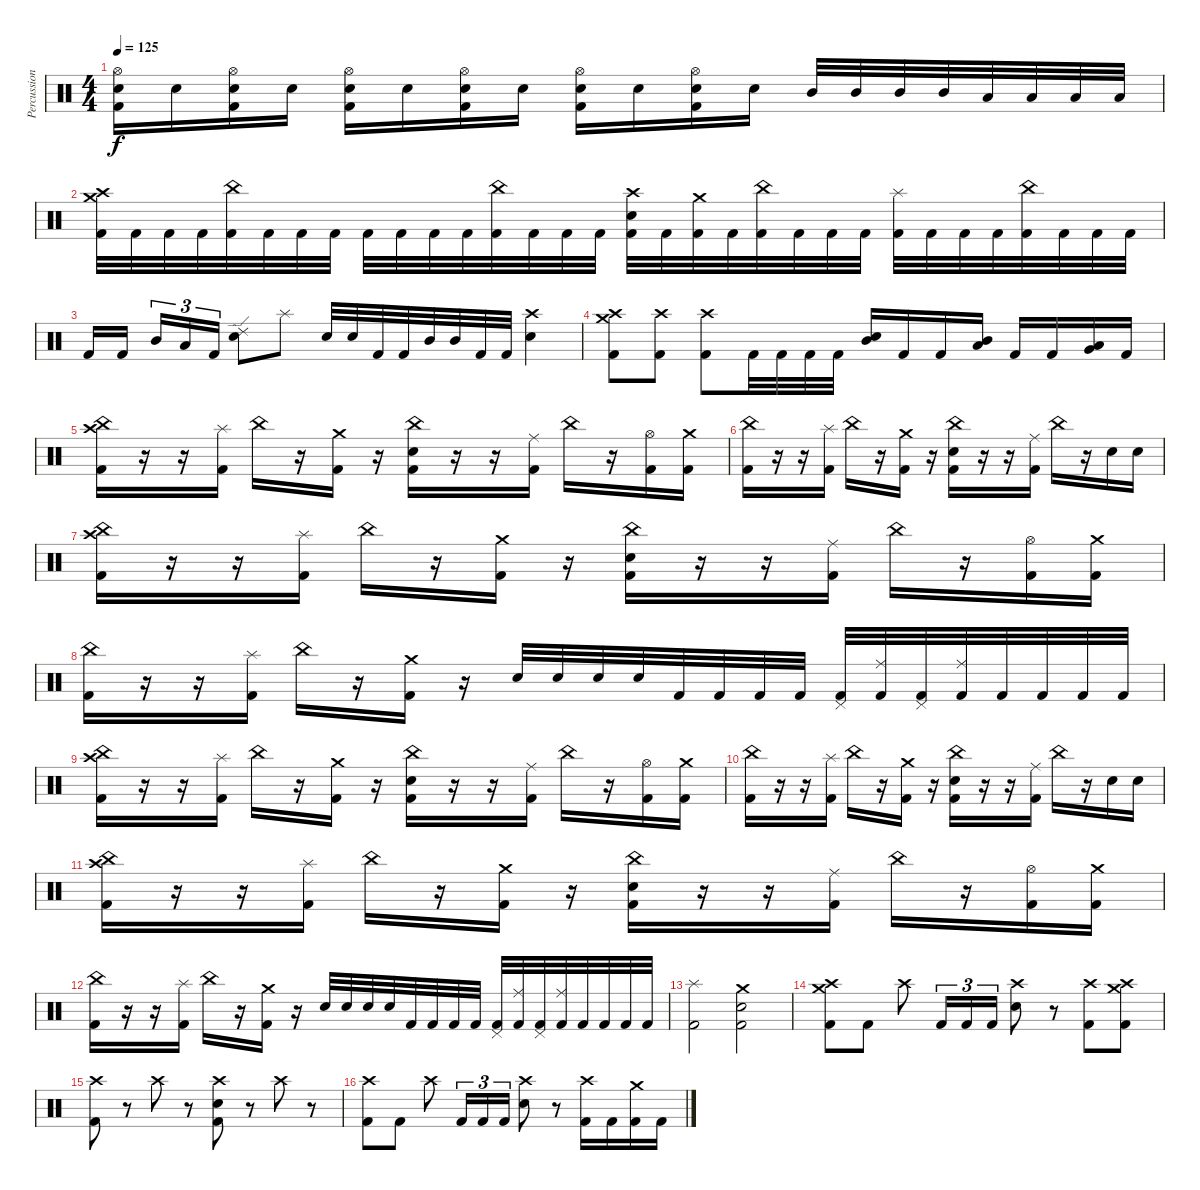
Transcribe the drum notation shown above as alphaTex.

\track ("Percussion" "Percussion") {instrument percussion}
\staff {score}
\articulation defaults
\ts (4 4)
\tempo 125
\clef neutral
\ks c
("Hi-Hat (open)" "Electric Snare (hit)" "Kick (hit) 2").16{dy f} "Electric Snare (hit)".16 ("Hi-Hat (open)" "Electric Snare (hit)" "Kick (hit) 2").16 "Electric Snare (hit)".16 ("Hi-Hat (open)" "Electric Snare (hit)" "Kick (hit) 2").16 "Electric Snare (hit)".16 ("Hi-Hat (open)" "Electric Snare (hit)" "Kick (hit) 2").16 "Electric Snare (hit)".16 ("Hi-Hat (open)" "Electric Snare (hit)" "Kick (hit) 2").16 "Electric Snare (hit)".16 ("Hi-Hat (open)" "Electric Snare (hit)" "Kick (hit) 2").16 "Electric Snare (hit)".16 "Mid Tom (hit)".32 "Mid Tom (hit)".32 "Mid Tom (hit)".32 "Mid Tom (hit)".32 "Low Tom (hit)".32 "Low Tom (hit)".32 "Low Tom (hit)".32 "Low Tom (hit)".32 |
("Crash medium (hit)" "Crash high (hit)" "Kick (hit) 2").32 "Kick (hit) 2".32 "Kick (hit) 2".32 "Kick (hit) 2".32 ("China (hit)" "Kick (hit) 2").32 "Kick (hit) 2".32 "Kick (hit) 2".32 "Kick (hit) 2".32 "Kick (hit) 2".32 "Kick (hit) 2".32 "Kick (hit) 2".32 "Kick (hit) 2".32 ("China (hit)" "Kick (hit) 2").32 "Kick (hit) 2".32 "Kick (hit) 2".32 "Kick (hit) 2".32 ("Crash high (hit)" "Electric Snare (hit)" "Kick (hit) 2").32 "Kick (hit) 2".32 ("Crash medium (hit)" "Kick (hit) 2").32 "Kick (hit) 2".32 ("China (hit)" "Kick (hit) 2").32 "Kick (hit) 2".32 "Kick (hit) 2".32 "Kick (hit) 2".32 ("Splash (hit)" "Kick (hit) 2").32 "Kick (hit) 2".32 "Kick (hit) 2".32 "Kick (hit) 2".32 ("China (hit)" "Kick (hit) 2").32 "Kick (hit) 2".32 "Kick (hit) 2".32 "Kick (hit) 2".32 |
"Kick (hit) 2".16 "Kick (hit) 2".16{beam splitsecondary} "Mid Tom (hit)".16{tu (3 2)} "Low Tom (hit)".16{tu (3 2)} "Kick (hit) 2".16{tu (3 2)} ("Ride (edge) 2" "Electric Snare (hit)").8 "Splash (hit)".8 "Electric Snare (hit)".32 "Electric Snare (hit)".32 "Kick (hit) 2".32 "Kick (hit) 2".32 "Mid Tom (hit)".32 "Mid Tom (hit)".32 "Kick (hit) 2".32 "Kick (hit) 2".32 ("Crash high (hit)" "Electric Snare (hit)").4 |
("Crash medium (hit)" "Crash high (hit)" "Kick (hit) 2").8 ("Crash high (hit)" "Kick (hit) 2").8 ("Crash high (hit)" "Kick (hit) 2").8 "Kick (hit) 2".32 "Kick (hit) 2".32 "Kick (hit) 2".32 "Kick (hit) 2".32 ("Mid Tom (hit)" "Electric Snare (hit)").16 "Kick (hit) 2".16 "Kick (hit) 2".16 ("Low Tom (hit)" "Mid Tom (hit)").16 "Kick (hit) 2".16 "Kick (hit) 2".16 ("Very Low Tom (hit)" "Low Tom (hit)").16 "Kick (hit) 2".16 |
("Crash high (hit)" "China (hit)" "Kick (hit) 2").16 r.16 r.16 ("Splash (hit)" "Kick (hit) 2").16 "China (hit)".16 r.16 ("Crash medium (hit)" "Kick (hit) 2").16 r.16 ("China (hit)" "Electric Snare (hit)" "Kick (hit) 2").16 r.16 r.16 ("Ride (middle)" "Kick (hit) 2").16 "China (hit)".16 r.16 ("Hi-Hat (open)" "Kick (hit) 2").16 ("Crash medium (hit)" "Kick (hit) 2").16 |
("China (hit)" "Kick (hit) 2").16 r.16 r.16 ("Splash (hit)" "Kick (hit) 2").16 "China (hit)".16 r.16 ("Crash medium (hit)" "Kick (hit) 2").16 r.16 ("China (hit)" "Electric Snare (hit)" "Kick (hit) 2").16 r.16 r.16 ("Ride (middle)" "Kick (hit) 2").16 "China (hit)".16 r.16 "Electric Snare (hit)".16 "Electric Snare (hit)".16 |
("Crash high (hit)" "China (hit)" "Kick (hit) 2").16 r.16 r.16 ("Splash (hit)" "Kick (hit) 2").16 "China (hit)".16 r.16 ("Crash medium (hit)" "Kick (hit) 2").16 r.16 ("China (hit)" "Electric Snare (hit)" "Kick (hit) 2").16 r.16 r.16 ("Ride (middle)" "Kick (hit) 2").16 "China (hit)".16 r.16 ("Hi-Hat (open)" "Kick (hit) 2").16 ("Crash medium (hit)" "Kick (hit) 2").16 |
("China (hit)" "Kick (hit) 2").16 r.16 r.16 ("Splash (hit)" "Kick (hit) 2").16 "China (hit)".16 r.16 ("Crash medium (hit)" "Kick (hit) 2").16 r.16 "Electric Snare (hit)".32 "Electric Snare (hit)".32 "Electric Snare (hit)".32 "Electric Snare (hit)".32 "Kick (hit) 2".32 "Kick (hit) 2".32 "Kick (hit) 2".32 "Kick (hit) 2".32 ("Pedal Hi-Hat (hit)" "Kick (hit) 2").32 ("Ride (middle)" "Kick (hit) 2").32 ("Pedal Hi-Hat (hit)" "Kick (hit) 2").32 ("Ride (middle)" "Kick (hit) 2").32 "Kick (hit) 2".32 "Kick (hit) 2".32 "Kick (hit) 2".32 "Kick (hit) 2".32 |
("Crash high (hit)" "China (hit)" "Kick (hit) 2").16 r.16 r.16 ("Splash (hit)" "Kick (hit) 2").16 "China (hit)".16 r.16 ("Crash medium (hit)" "Kick (hit) 2").16 r.16 ("China (hit)" "Electric Snare (hit)" "Kick (hit) 2").16 r.16 r.16 ("Ride (middle)" "Kick (hit) 2").16 "China (hit)".16 r.16 ("Hi-Hat (open)" "Kick (hit) 2").16 ("Crash medium (hit)" "Kick (hit) 2").16 |
("China (hit)" "Kick (hit) 2").16 r.16 r.16 ("Splash (hit)" "Kick (hit) 2").16 "China (hit)".16 r.16 ("Crash medium (hit)" "Kick (hit) 2").16 r.16 ("China (hit)" "Electric Snare (hit)" "Kick (hit) 2").16 r.16 r.16 ("Ride (middle)" "Kick (hit) 2").16 "China (hit)".16 r.16 "Electric Snare (hit)".16 "Electric Snare (hit)".16 |
("Crash high (hit)" "China (hit)" "Kick (hit) 2").16 r.16 r.16 ("Splash (hit)" "Kick (hit) 2").16 "China (hit)".16 r.16 ("Crash medium (hit)" "Kick (hit) 2").16 r.16 ("China (hit)" "Electric Snare (hit)" "Kick (hit) 2").16 r.16 r.16 ("Ride (middle)" "Kick (hit) 2").16 "China (hit)".16 r.16 ("Hi-Hat (open)" "Kick (hit) 2").16 ("Crash medium (hit)" "Kick (hit) 2").16 |
("China (hit)" "Kick (hit) 2").16 r.16 r.16 ("Splash (hit)" "Kick (hit) 2").16 "China (hit)".16 r.16 ("Crash medium (hit)" "Kick (hit) 2").16 r.16 "Electric Snare (hit)".32 "Electric Snare (hit)".32 "Electric Snare (hit)".32 "Electric Snare (hit)".32 "Kick (hit) 2".32 "Kick (hit) 2".32 "Kick (hit) 2".32 "Kick (hit) 2".32 ("Pedal Hi-Hat (hit)" "Kick (hit) 2").32 ("Ride (middle)" "Kick (hit) 2").32 ("Pedal Hi-Hat (hit)" "Kick (hit) 2").32 ("Ride (middle)" "Kick (hit) 2").32 "Kick (hit) 2".32 "Kick (hit) 2".32 "Kick (hit) 2".32 "Kick (hit) 2".32 |
("Splash (hit)" "Kick (hit) 2").2 ("Crash medium (hit)" "Electric Snare (hit)" "Kick (hit) 2").2 |
("Crash medium (hit)" "Crash high (hit)" "Kick (hit) 2").8 "Kick (hit) 2".8 "Crash high (hit)".8 "Kick (hit) 2".16{tu (3 2)} "Kick (hit) 2".16{tu (3 2)} "Kick (hit) 2".16{tu (3 2)} ("Crash high (hit)" "Electric Snare (hit)").8 r.8 ("Crash high (hit)" "Kick (hit) 2").8 ("Crash medium (hit)" "Crash high (hit)" "Kick (hit) 2").8 |
("Crash high (hit)" "Kick (hit) 2").8 r.8 "Crash high (hit)".8 r.8 ("Crash high (hit)" "Electric Snare (hit)" "Kick (hit) 2").8 r.8 "Crash high (hit)".8 r.8 |
("Crash high (hit)" "Kick (hit) 2").8 "Kick (hit) 2".8 "Crash high (hit)".8 "Kick (hit) 2".16{tu (3 2)} "Kick (hit) 2".16{tu (3 2)} "Kick (hit) 2".16{tu (3 2)} ("Crash high (hit)" "Electric Snare (hit)").8 r.8 ("Crash high (hit)" "Kick (hit) 2").16 "Kick (hit) 2".16 ("Crash medium (hit)" "Kick (hit) 2").16 "Kick (hit) 2".16
